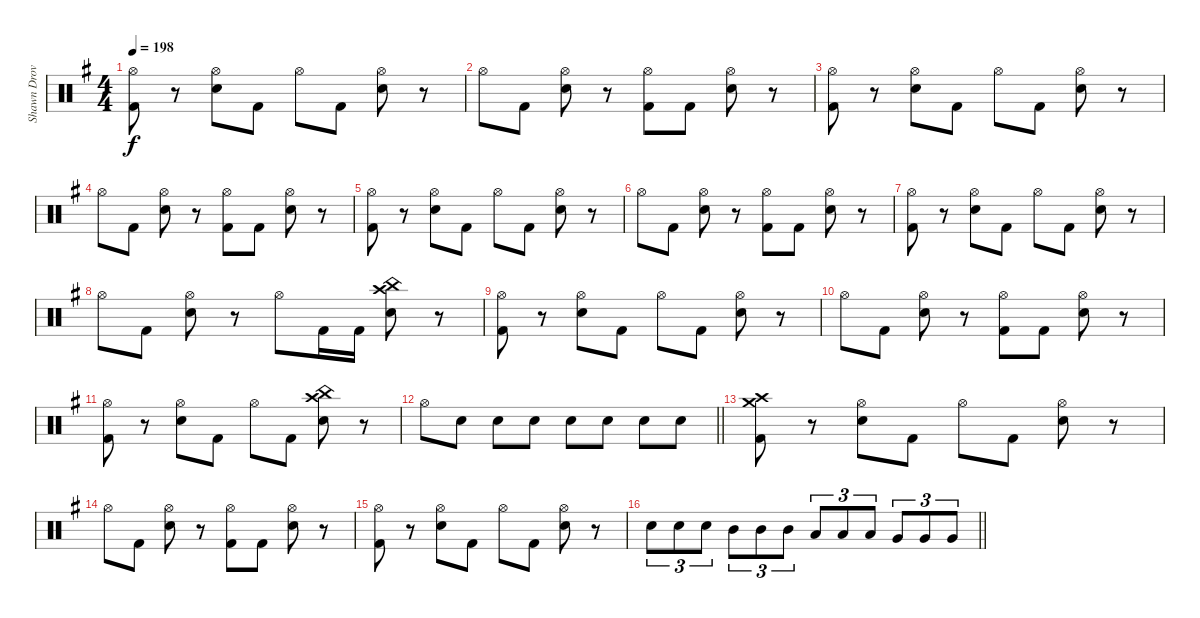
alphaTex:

\track ("Shawn Drover" "Shawn Drov") {instrument percussion}
\staff {score}
\articulation defaults
\ts (4 4)
\tempo 198
\clef neutral
\ks g
("Hi-Hat (open)" "Kick (hit) 2").8{dy f} r.8 ("Hi-Hat (open)" "Snare (hit) 2").8 "Kick (hit) 2".8 "Hi-Hat (open)".8 "Kick (hit) 2".8 ("Hi-Hat (open)" "Snare (hit) 2").8 r.8 |
"Hi-Hat (open)".8 "Kick (hit) 2".8 ("Hi-Hat (open)" "Snare (hit) 2").8 r.8 ("Hi-Hat (open)" "Kick (hit) 2").8 "Kick (hit) 2".8 ("Hi-Hat (open)" "Snare (hit) 2").8 r.8 |
("Hi-Hat (open)" "Kick (hit) 2").8 r.8 ("Hi-Hat (open)" "Snare (hit) 2").8 "Kick (hit) 2".8 "Hi-Hat (open)".8 "Kick (hit) 2".8 ("Hi-Hat (open)" "Snare (hit) 2").8 r.8 |
"Hi-Hat (open)".8 "Kick (hit) 2".8 ("Hi-Hat (open)" "Snare (hit) 2").8 r.8 ("Hi-Hat (open)" "Kick (hit) 2").8 "Kick (hit) 2".8 ("Hi-Hat (open)" "Snare (hit) 2").8 r.8 |
("Hi-Hat (open)" "Kick (hit) 2").8 r.8 ("Hi-Hat (open)" "Snare (hit) 2").8 "Kick (hit) 2".8 "Hi-Hat (open)".8 "Kick (hit) 2".8 ("Hi-Hat (open)" "Snare (hit) 2").8 r.8 |
"Hi-Hat (open)".8 "Kick (hit) 2".8 ("Hi-Hat (open)" "Snare (hit) 2").8 r.8 ("Hi-Hat (open)" "Kick (hit) 2").8 "Kick (hit) 2".8 ("Hi-Hat (open)" "Snare (hit) 2").8 r.8 |
("Hi-Hat (open)" "Kick (hit) 2").8 r.8 ("Hi-Hat (open)" "Snare (hit) 2").8 "Kick (hit) 2".8 "Hi-Hat (open)".8 "Kick (hit) 2".8 ("Hi-Hat (open)" "Snare (hit) 2").8 r.8 |
"Hi-Hat (open)".8 "Kick (hit) 2".8 ("Hi-Hat (open)" "Snare (hit) 2").8 r.8 "Hi-Hat (open)".8 "Kick (hit) 2".16 "Kick (hit) 2".16 ("China (hit)" "Crash high (hit)" "Snare (hit) 2").8 r.8 |
("Hi-Hat (open)" "Kick (hit) 2").8 r.8 ("Hi-Hat (open)" "Snare (hit) 2").8 "Kick (hit) 2".8 "Hi-Hat (open)".8 "Kick (hit) 2".8 ("Hi-Hat (open)" "Snare (hit) 2").8 r.8 |
"Hi-Hat (open)".8 "Kick (hit) 2".8 ("Hi-Hat (open)" "Snare (hit) 2").8 r.8 ("Hi-Hat (open)" "Kick (hit) 2").8 "Kick (hit) 2".8 ("Hi-Hat (open)" "Snare (hit) 2").8 r.8 |
("Hi-Hat (open)" "Kick (hit) 2").8 r.8 ("Hi-Hat (open)" "Snare (hit) 2").8 "Kick (hit) 2".8 "Hi-Hat (open)".8 "Kick (hit) 2".8 ("China (hit)" "Crash high (hit)" "Snare (hit) 2").8 r.8 |
\barLineRight lightlight "Hi-Hat (open)".8 "Snare (hit) 2".8 "Snare (hit) 2".8 "Snare (hit) 2".8 "Snare (hit) 2".8 "Snare (hit) 2".8 "Snare (hit) 2".8 "Snare (hit) 2".8
|
("Crash high (hit)" "Crash medium (hit)" "Kick (hit) 2").8 r.8 ("Hi-Hat (open)" "Snare (hit) 2").8 "Kick (hit) 2".8 "Hi-Hat (open)".8 "Kick (hit) 2".8 ("Hi-Hat (open)" "Snare (hit) 2").8 r.8 |
"Hi-Hat (open)".8 "Kick (hit) 2".8 ("Hi-Hat (open)" "Snare (hit) 2").8 r.8 ("Hi-Hat (open)" "Kick (hit) 2").8 "Kick (hit) 2".8 ("Hi-Hat (open)" "Snare (hit) 2").8 r.8 |
("Hi-Hat (open)" "Kick (hit) 2").8 r.8 ("Hi-Hat (open)" "Snare (hit) 2").8 "Kick (hit) 2".8 "Hi-Hat (open)".8 "Kick (hit) 2".8 ("Hi-Hat (open)" "Snare (hit) 2").8 r.8 |
\barLineRight lightlight "Snare (hit) 2".8{tu (3 2)} "Snare (hit) 2".8{tu (3 2)} "Snare (hit) 2".8{tu (3 2)} "Mid Tom (hit)".8{tu (3 2)} "Mid Tom (hit)".8{tu (3 2)} "Mid Tom (hit)".8{tu (3 2)} "Low Tom (hit)".8{tu (3 2)} "Low Tom (hit)".8{tu (3 2)} "Low Tom (hit)".8{tu (3 2)} "Very Low Tom (hit)".8{tu (3 2)} "Very Low Tom (hit)".8{tu (3 2)} "Very Low Tom (hit)".8{tu (3 2)}
